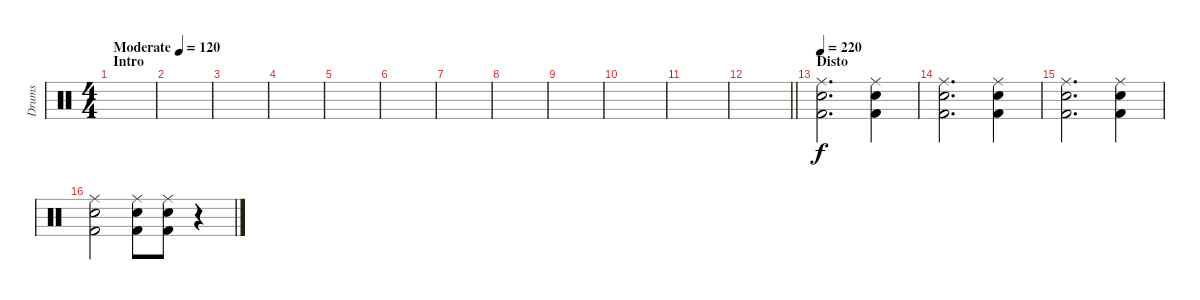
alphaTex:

\track ("Drums" "Drums") {instrument percussion}
\staff {score}
\articulation defaults
\ts (4 4)
\section ("" "Intro")
\tempo (120 "Moderate")
\clef neutral
\ks c
|
|
|
|
|
|
|
|
|
|
|
\barLineRight lightlight
|
\section ("" "Disto")
\tempo 220
("Ride (middle)" "Snare (hit) 2" "Kick (hit) 2").2{d} ("Ride (middle)" "Snare (hit) 2" "Kick (hit) 2").4 |
("Ride (middle)" "Snare (hit) 2" "Kick (hit) 2").2{d} ("Ride (middle)" "Snare (hit) 2" "Kick (hit) 2").4 |
("Ride (middle)" "Snare (hit) 2" "Kick (hit) 2").2{d} ("Ride (middle)" "Snare (hit) 2" "Kick (hit) 2").4 |
("Ride (middle)" "Snare (hit) 2" "Kick (hit) 2").2 ("Ride (middle)" "Snare (hit) 2" "Kick (hit) 2").8 ("Ride (middle)" "Snare (hit) 2" "Kick (hit) 2").8{dy f} r.4
